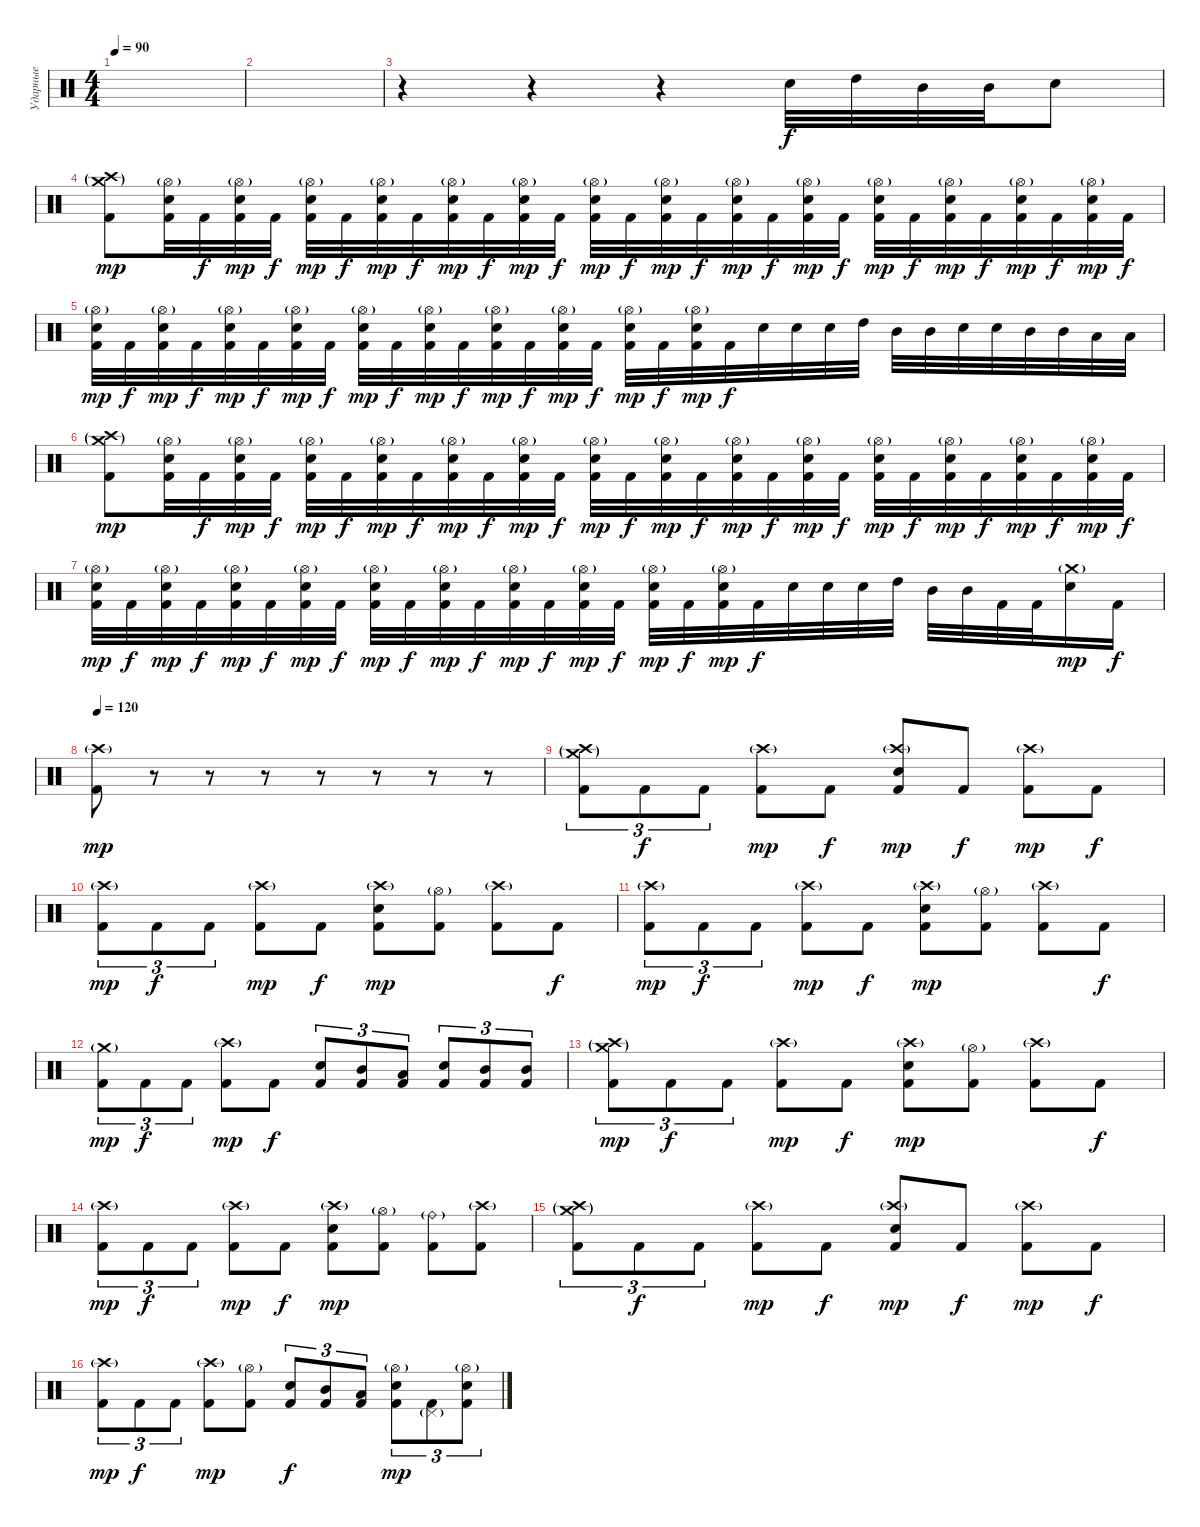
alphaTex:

\track ("Ударные" "Ударные") {instrument percussion}
\staff {score}
\articulation defaults
\ts (4 4)
\tempo 90
\clef neutral
\ks c
|
|
r.4 r.4 r.4 "Electric Snare (hit)".32 "High Tom (hit)".32 "Mid Tom (hit)".32 "Mid Tom (hit)".32 "Electric Snare (hit)".8 |
("Crash medium (hit)"{g} "Crash high (hit)"{g} "Kick (hit) 2").8{dy mp} ("Hi-Hat (open)"{g} "Electric Snare (hit)" "Kick (hit) 2").32 "Kick (hit) 2".32{dy f} ("Hi-Hat (open)"{g} "Electric Snare (hit)" "Kick (hit) 2").32{dy mp} "Kick (hit) 2".32{dy f} ("Hi-Hat (open)"{g} "Electric Snare (hit)" "Kick (hit) 2").32{dy mp} "Kick (hit) 2".32{dy f} ("Hi-Hat (open)"{g} "Electric Snare (hit)" "Kick (hit) 2").32{dy mp} "Kick (hit) 2".32{dy f} ("Hi-Hat (open)"{g} "Electric Snare (hit)" "Kick (hit) 2").32{dy mp} "Kick (hit) 2".32{dy f} ("Hi-Hat (open)"{g} "Electric Snare (hit)" "Kick (hit) 2").32{dy mp} "Kick (hit) 2".32{dy f} ("Hi-Hat (open)"{g} "Electric Snare (hit)" "Kick (hit) 2").32{dy mp} "Kick (hit) 2".32{dy f} ("Hi-Hat (open)"{g} "Electric Snare (hit)" "Kick (hit) 2").32{dy mp} "Kick (hit) 2".32{dy f} ("Hi-Hat (open)"{g} "Electric Snare (hit)" "Kick (hit) 2").32{dy mp} "Kick (hit) 2".32{dy f} ("Hi-Hat (open)"{g} "Electric Snare (hit)" "Kick (hit) 2").32{dy mp} "Kick (hit) 2".32{dy f} ("Hi-Hat (open)"{g} "Electric Snare (hit)" "Kick (hit) 2").32{dy mp} "Kick (hit) 2".32{dy f} ("Hi-Hat (open)"{g} "Electric Snare (hit)" "Kick (hit) 2").32{dy mp} "Kick (hit) 2".32{dy f} ("Hi-Hat (open)"{g} "Electric Snare (hit)" "Kick (hit) 2").32{dy mp} "Kick (hit) 2".32{dy f} ("Hi-Hat (open)"{g} "Electric Snare (hit)" "Kick (hit) 2").32{dy mp} "Kick (hit) 2".32{dy f} |
("Hi-Hat (open)"{g} "Electric Snare (hit)" "Kick (hit) 2").32{dy mp} "Kick (hit) 2".32{dy f} ("Hi-Hat (open)"{g} "Electric Snare (hit)" "Kick (hit) 2").32{dy mp} "Kick (hit) 2".32{dy f} ("Hi-Hat (open)"{g} "Electric Snare (hit)" "Kick (hit) 2").32{dy mp} "Kick (hit) 2".32{dy f} ("Hi-Hat (open)"{g} "Electric Snare (hit)" "Kick (hit) 2").32{dy mp} "Kick (hit) 2".32{dy f} ("Hi-Hat (open)"{g} "Electric Snare (hit)" "Kick (hit) 2").32{dy mp} "Kick (hit) 2".32{dy f} ("Hi-Hat (open)"{g} "Electric Snare (hit)" "Kick (hit) 2").32{dy mp} "Kick (hit) 2".32{dy f} ("Hi-Hat (open)"{g} "Electric Snare (hit)" "Kick (hit) 2").32{dy mp} "Kick (hit) 2".32{dy f} ("Hi-Hat (open)"{g} "Electric Snare (hit)" "Kick (hit) 2").32{dy mp} "Kick (hit) 2".32{dy f} ("Hi-Hat (open)"{g} "Electric Snare (hit)" "Kick (hit) 2").32{dy mp} "Kick (hit) 2".32{dy f} ("Hi-Hat (open)"{g} "Electric Snare (hit)" "Kick (hit) 2").32{dy mp} "Kick (hit) 2".32{dy f} "Electric Snare (hit)".32 "Electric Snare (hit)".32 "Electric Snare (hit)".32 "High Tom (hit)".32 "Mid Tom (hit)".32 "Mid Tom (hit)".32 "Electric Snare (hit)".32 "Electric Snare (hit)".32 "Mid Tom (hit)".32 "Mid Tom (hit)".32 "Low Tom (hit)".32 "Low Tom (hit)".32 |
("Crash medium (hit)"{g} "Crash high (hit)"{g} "Kick (hit) 2").8{dy mp} ("Hi-Hat (open)"{g} "Electric Snare (hit)" "Kick (hit) 2").32 "Kick (hit) 2".32{dy f} ("Hi-Hat (open)"{g} "Electric Snare (hit)" "Kick (hit) 2").32{dy mp} "Kick (hit) 2".32{dy f} ("Hi-Hat (open)"{g} "Electric Snare (hit)" "Kick (hit) 2").32{dy mp} "Kick (hit) 2".32{dy f} ("Hi-Hat (open)"{g} "Electric Snare (hit)" "Kick (hit) 2").32{dy mp} "Kick (hit) 2".32{dy f} ("Hi-Hat (open)"{g} "Electric Snare (hit)" "Kick (hit) 2").32{dy mp} "Kick (hit) 2".32{dy f} ("Hi-Hat (open)"{g} "Electric Snare (hit)" "Kick (hit) 2").32{dy mp} "Kick (hit) 2".32{dy f} ("Hi-Hat (open)"{g} "Electric Snare (hit)" "Kick (hit) 2").32{dy mp} "Kick (hit) 2".32{dy f} ("Hi-Hat (open)"{g} "Electric Snare (hit)" "Kick (hit) 2").32{dy mp} "Kick (hit) 2".32{dy f} ("Hi-Hat (open)"{g} "Electric Snare (hit)" "Kick (hit) 2").32{dy mp} "Kick (hit) 2".32{dy f} ("Hi-Hat (open)"{g} "Electric Snare (hit)" "Kick (hit) 2").32{dy mp} "Kick (hit) 2".32{dy f} ("Hi-Hat (open)"{g} "Electric Snare (hit)" "Kick (hit) 2").32{dy mp} "Kick (hit) 2".32{dy f} ("Hi-Hat (open)"{g} "Electric Snare (hit)" "Kick (hit) 2").32{dy mp} "Kick (hit) 2".32{dy f} ("Hi-Hat (open)"{g} "Electric Snare (hit)" "Kick (hit) 2").32{dy mp} "Kick (hit) 2".32{dy f} ("Hi-Hat (open)"{g} "Electric Snare (hit)" "Kick (hit) 2").32{dy mp} "Kick (hit) 2".32{dy f} |
("Hi-Hat (open)"{g} "Electric Snare (hit)" "Kick (hit) 2").32{dy mp} "Kick (hit) 2".32{dy f} ("Hi-Hat (open)"{g} "Electric Snare (hit)" "Kick (hit) 2").32{dy mp} "Kick (hit) 2".32{dy f} ("Hi-Hat (open)"{g} "Electric Snare (hit)" "Kick (hit) 2").32{dy mp} "Kick (hit) 2".32{dy f} ("Hi-Hat (open)"{g} "Electric Snare (hit)" "Kick (hit) 2").32{dy mp} "Kick (hit) 2".32{dy f} ("Hi-Hat (open)"{g} "Electric Snare (hit)" "Kick (hit) 2").32{dy mp} "Kick (hit) 2".32{dy f} ("Hi-Hat (open)"{g} "Electric Snare (hit)" "Kick (hit) 2").32{dy mp} "Kick (hit) 2".32{dy f} ("Hi-Hat (open)"{g} "Electric Snare (hit)" "Kick (hit) 2").32{dy mp} "Kick (hit) 2".32{dy f} ("Hi-Hat (open)"{g} "Electric Snare (hit)" "Kick (hit) 2").32{dy mp} "Kick (hit) 2".32{dy f} ("Hi-Hat (open)"{g} "Electric Snare (hit)" "Kick (hit) 2").32{dy mp} "Kick (hit) 2".32{dy f} ("Hi-Hat (open)"{g} "Electric Snare (hit)" "Kick (hit) 2").32{dy mp} "Kick (hit) 2".32{dy f} "Electric Snare (hit)".32 "Electric Snare (hit)".32 "Electric Snare (hit)".32 "High Tom (hit)".32 "Mid Tom (hit)".32 "Mid Tom (hit)".32 "Kick (hit) 2".32 "Kick (hit) 2".32 ("Crash medium (hit)"{g} "Electric Snare (hit)").16{dy mp} "Kick (hit) 2".16{dy f} |
\tempo 120
("Crash high (hit)"{g} "Kick (hit) 2").8{dy mp} r.8{volume 0} r.8 r.8 r.8 r.8 r.8 r.8 |
("Crash high (hit)"{g} "Crash medium (hit)"{g} "Kick (hit) 2").8{tu (3 2) volume 16} "Kick (hit) 2".8{tu (3 2) dy f} "Kick (hit) 2".8{tu (3 2)} ("Crash high (hit)"{g} "Kick (hit) 2").8{dy mp} "Kick (hit) 2".8{dy f} ("Crash high (hit)"{g} "Electric Snare (hit)" "Kick (hit) 2").8{dy mp} "Kick (hit) 2".8{dy f} ("Crash high (hit)"{g} "Kick (hit) 2").8{dy mp} "Kick (hit) 2".8{dy f} |
("Crash high (hit)"{g} "Kick (hit) 2").8{tu (3 2) dy mp} "Kick (hit) 2".8{tu (3 2) dy f} "Kick (hit) 2".8{tu (3 2)} ("Crash high (hit)"{g} "Kick (hit) 2").8{dy mp} "Kick (hit) 2".8{dy f} ("Crash high (hit)"{g} "Electric Snare (hit)" "Kick (hit) 2").8{dy mp} ("Hi-Hat (open)"{g} "Kick (hit) 2").8 ("Crash high (hit)"{g} "Kick (hit) 2").8 "Kick (hit) 2".8{dy f} |
("Crash high (hit)"{g} "Kick (hit) 2").8{tu (3 2) dy mp} "Kick (hit) 2".8{tu (3 2) dy f} "Kick (hit) 2".8{tu (3 2)} ("Crash high (hit)"{g} "Kick (hit) 2").8{dy mp} "Kick (hit) 2".8{dy f} ("Crash high (hit)"{g} "Electric Snare (hit)" "Kick (hit) 2").8{dy mp} ("Hi-Hat (open)"{g} "Kick (hit) 2").8 ("Crash high (hit)"{g} "Kick (hit) 2").8 "Kick (hit) 2".8{dy f} |
("Crash medium (hit)"{g} "Kick (hit) 2").8{tu (3 2) dy mp} "Kick (hit) 2".8{tu (3 2) dy f} "Kick (hit) 2".8{tu (3 2)} ("Crash high (hit)"{g} "Kick (hit) 2").8{dy mp} "Kick (hit) 2".8{dy f} ("Electric Snare (hit)" "Kick (hit) 2").8{tu (3 2)} ("Mid Tom (hit)" "Kick (hit) 2").8{tu (3 2)} ("Low Tom (hit)" "Kick (hit) 2").8{tu (3 2)} ("Electric Snare (hit)" "Kick (hit) 2").8{tu (3 2)} ("Mid Tom (hit)" "Kick (hit) 2").8{tu (3 2)} ("Mid Tom (hit)" "Kick (hit) 2").8{tu (3 2)} |
("Crash high (hit)"{g} "Crash medium (hit)"{g} "Kick (hit) 2").8{tu (3 2) dy mp} "Kick (hit) 2".8{tu (3 2) dy f} "Kick (hit) 2".8{tu (3 2)} ("Crash high (hit)"{g} "Kick (hit) 2").8{dy mp} "Kick (hit) 2".8{dy f} ("Crash high (hit)"{g} "Electric Snare (hit)" "Kick (hit) 2").8{dy mp} ("Hi-Hat (open)"{g} "Kick (hit) 2").8 ("Crash high (hit)"{g} "Kick (hit) 2").8 "Kick (hit) 2".8{dy f} |
("Crash high (hit)"{g} "Kick (hit) 2").8{tu (3 2) dy mp} "Kick (hit) 2".8{tu (3 2) dy f} "Kick (hit) 2".8{tu (3 2)} ("Crash high (hit)"{g} "Kick (hit) 2").8{dy mp} "Kick (hit) 2".8{dy f} ("Crash high (hit)"{g} "Electric Snare (hit)" "Kick (hit) 2").8{dy mp} ("Hi-Hat (open)"{g} "Kick (hit) 2").8 ("Ride (bell)"{g} "Kick (hit) 2").8 ("Crash high (hit)"{g} "Kick (hit) 2").8 |
("Crash high (hit)"{g} "Crash medium (hit)"{g} "Kick (hit) 2").8{tu (3 2)} "Kick (hit) 2".8{tu (3 2) dy f} "Kick (hit) 2".8{tu (3 2)} ("Crash high (hit)"{g} "Kick (hit) 2").8{dy mp} "Kick (hit) 2".8{dy f} ("Crash high (hit)"{g} "Electric Snare (hit)" "Kick (hit) 2").8{dy mp} "Kick (hit) 2".8{dy f} ("Crash high (hit)"{g} "Kick (hit) 2").8{dy mp} "Kick (hit) 2".8{dy f} |
("Crash high (hit)"{g} "Kick (hit) 2").8{tu (3 2) dy mp} "Kick (hit) 2".8{tu (3 2) dy f} "Kick (hit) 2".8{tu (3 2)} ("Crash high (hit)"{g} "Kick (hit) 2").8{dy mp} ("Hi-Hat (open)"{g} "Kick (hit) 2").8 ("Electric Snare (hit)" "Kick (hit) 2").8{tu (3 2) dy f} ("Mid Tom (hit)" "Kick (hit) 2").8{tu (3 2)} ("Low Tom (hit)" "Kick (hit) 2").8{tu (3 2)} ("Hi-Hat (open)"{g} "Electric Snare (hit)" "Kick (hit) 2").8{tu (3 2) dy mp} ("Pedal Hi-Hat (hit)"{g} "Kick (hit) 2").8{tu (3 2)} ("Hi-Hat (open)"{g} "Electric Snare (hit)" "Kick (hit) 2").8{tu (3 2)}
